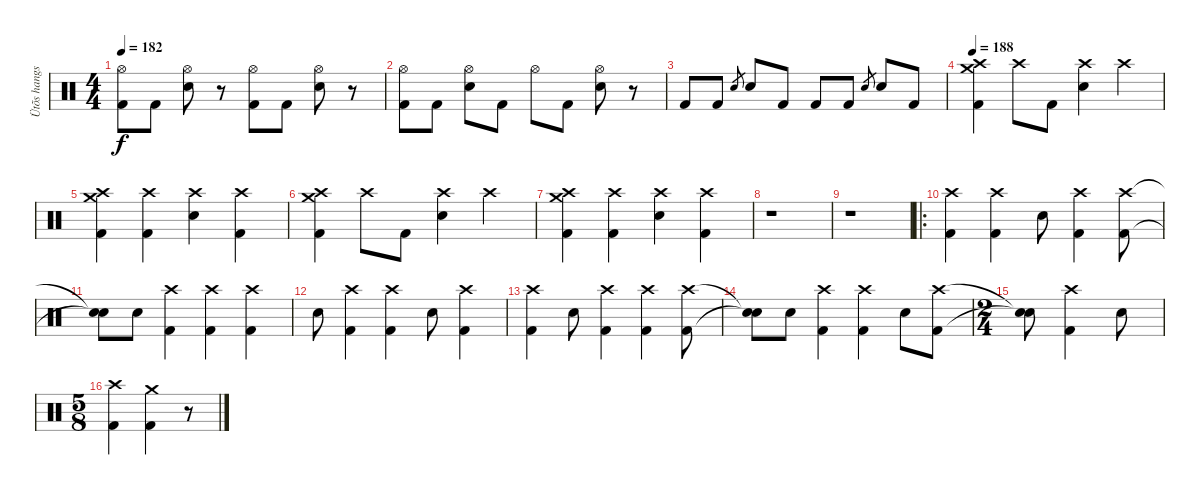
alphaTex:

\track ("Ütõs hangszer" "Ütõs hangs") {instrument percussion}
\staff {score}
\articulation defaults
\ts (4 4)
\tempo 182
\clef neutral
\ks c
("Hi-Hat (open)" "Kick (hit) 2").8{dy f} "Kick (hit) 2".8 ("Hi-Hat (open)" "Electric Snare (hit)").8 r.8 ("Hi-Hat (open)" "Kick (hit) 2").8 "Kick (hit) 2".8 ("Hi-Hat (open)" "Electric Snare (hit)").8 r.8 |
("Hi-Hat (open)" "Kick (hit) 2").8 "Kick (hit) 2".8 ("Hi-Hat (open)" "Electric Snare (hit)").8 "Kick (hit) 2".8 "Hi-Hat (open)".8 "Kick (hit) 2".8 ("Hi-Hat (open)" "Electric Snare (hit)").8 r.8 |
"Kick (hit) 2".8 "Kick (hit) 2".8 "Electric Snare (hit)".8{gr} "Electric Snare (hit)".8 "Kick (hit) 2".8 "Kick (hit) 2".8 "Kick (hit) 2".8 "Electric Snare (hit)".8{gr} "Electric Snare (hit)".8 "Kick (hit) 2".8 |
\tempo 188
("Crash high (hit)" "Crash medium (hit)" "Kick (hit) 2").4 "Crash high (hit)".8 "Kick (hit) 2".8 ("Crash high (hit)" "Electric Snare (hit)").4 "Crash high (hit)".4 |
("Crash high (hit)" "Crash medium (hit)" "Kick (hit) 2").4 ("Crash high (hit)" "Kick (hit) 2").4 ("Crash high (hit)" "Electric Snare (hit)").4 ("Crash high (hit)" "Kick (hit) 2").4 |
("Crash high (hit)" "Crash medium (hit)" "Kick (hit) 2").4 "Crash high (hit)".8 "Kick (hit) 2".8 ("Crash high (hit)" "Electric Snare (hit)").4 "Crash high (hit)".4 |
("Crash high (hit)" "Crash medium (hit)" "Kick (hit) 2").4 ("Crash high (hit)" "Kick (hit) 2").4 ("Crash high (hit)" "Electric Snare (hit)").4 ("Crash high (hit)" "Kick (hit) 2").4 |
r.1 |
r.1 |
\ro
("Crash high (hit)" "Kick (hit) 2").4 ("Crash high (hit)" "Kick (hit) 2").4 "Electric Snare (hit)".8 ("Crash high (hit)" "Kick (hit) 2").4 ("Crash high (hit)" "Kick (hit) 2").8 |
("Snare (hit)"{t} "Snare (hit)"{t}).8 "Electric Snare (hit)".8 ("Crash high (hit)" "Kick (hit) 2").4 ("Crash high (hit)" "Kick (hit) 2").4 ("Crash high (hit)" "Kick (hit) 2").4 |
"Electric Snare (hit)".8 ("Crash high (hit)" "Kick (hit) 2").4 ("Crash high (hit)" "Kick (hit) 2").4 "Electric Snare (hit)".8 ("Crash high (hit)" "Kick (hit) 2").4 |
("Crash high (hit)" "Kick (hit) 2").4 "Electric Snare (hit)".8 ("Crash high (hit)" "Kick (hit) 2").4 ("Crash high (hit)" "Kick (hit) 2").4 ("Crash high (hit)" "Kick (hit) 2").8 |
("Snare (hit)"{t} "Snare (hit)"{t}).8 "Electric Snare (hit)".8 ("Crash high (hit)" "Kick (hit) 2").4 ("Crash high (hit)" "Kick (hit) 2").4 "Electric Snare (hit)".8 ("Crash high (hit)" "Kick (hit) 2").8 |
\ts (2 4)
("Snare (hit)"{t} "Snare (hit)"{t}).8 ("Crash high (hit)" "Kick (hit) 2").4 "Electric Snare (hit)".8 |
\ts (5 8)
("Crash high (hit)" "Kick (hit) 2").4 ("Crash medium (hit)" "Kick (hit) 2").4 r.8
